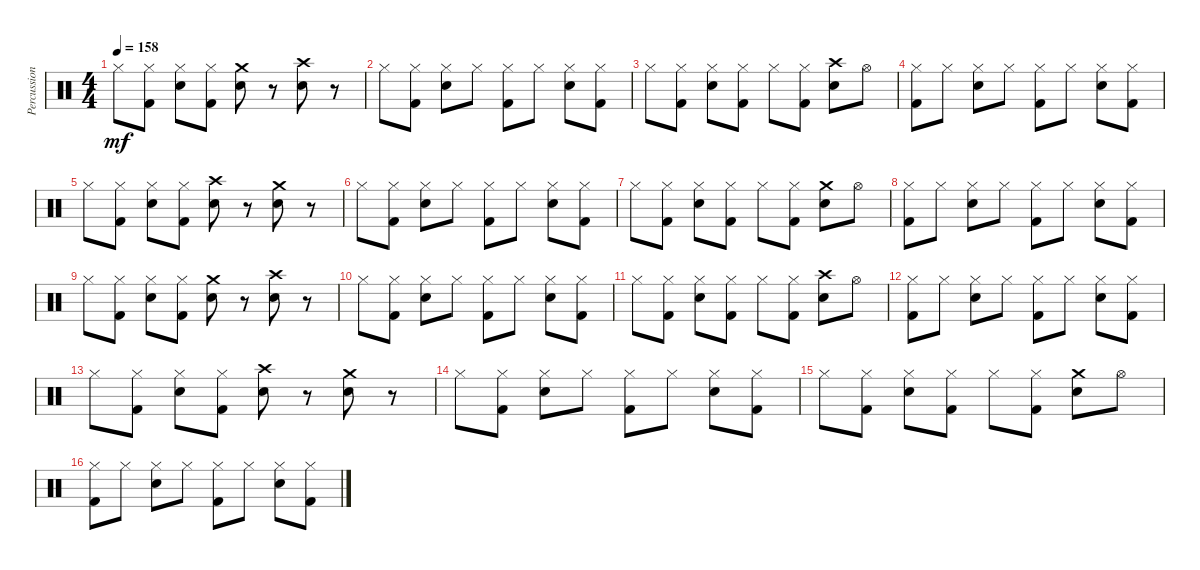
\track ("Percussions" "Percussion") {instrument percussion}
\staff {score}
\articulation defaults
\ts (4 4)
\tempo 158
\clef neutral
\ks c "Hi-Hat (closed)".8{dy mf}
("Hi-Hat (closed)" "Kick (hit) 2").8 ("Hi-Hat (closed)" "Electric Snare (hit)").8 ("Hi-Hat (closed)" "Kick (hit) 2").8 ("Crash medium (hit)" "Electric Snare (hit)").8 r.8 ("Crash high (hit)" "Electric Snare (hit)").8 r.8 |
"Hi-Hat (closed)".8 ("Hi-Hat (closed)" "Kick (hit) 2").8 ("Hi-Hat (closed)" "Electric Snare (hit)").8 "Hi-Hat (closed)".8 ("Hi-Hat (closed)" "Kick (hit) 2").8 "Hi-Hat (closed)".8 ("Hi-Hat (closed)" "Electric Snare (hit)").8 ("Hi-Hat (closed)" "Kick (hit) 2").8 |
"Hi-Hat (closed)".8 ("Hi-Hat (closed)" "Kick (hit) 2").8 ("Hi-Hat (closed)" "Electric Snare (hit)").8 ("Hi-Hat (closed)" "Kick (hit) 2").8 "Hi-Hat (closed)".8 ("Hi-Hat (closed)" "Kick (hit) 2").8 ("Crash high (hit)" "Electric Snare (hit)").8 "Hi-Hat (open)".8 |
("Hi-Hat (closed)" "Kick (hit) 2").8 "Hi-Hat (closed)".8 ("Hi-Hat (closed)" "Electric Snare (hit)").8 "Hi-Hat (closed)".8 ("Hi-Hat (closed)" "Kick (hit) 2").8 "Hi-Hat (closed)".8 ("Hi-Hat (closed)" "Electric Snare (hit)").8 ("Hi-Hat (closed)" "Kick (hit) 2").8 |
"Hi-Hat (closed)".8 ("Hi-Hat (closed)" "Kick (hit) 2").8 ("Hi-Hat (closed)" "Electric Snare (hit)").8 ("Hi-Hat (closed)" "Kick (hit) 2").8 ("Crash high (hit)" "Electric Snare (hit)").8 r.8 ("Crash medium (hit)" "Electric Snare (hit)").8 r.8 |
"Hi-Hat (closed)".8 ("Hi-Hat (closed)" "Kick (hit) 2").8 ("Hi-Hat (closed)" "Electric Snare (hit)").8 "Hi-Hat (closed)".8 ("Hi-Hat (closed)" "Kick (hit) 2").8 "Hi-Hat (closed)".8 ("Hi-Hat (closed)" "Electric Snare (hit)").8 ("Hi-Hat (closed)" "Kick (hit) 2").8 |
"Hi-Hat (closed)".8 ("Hi-Hat (closed)" "Kick (hit) 2").8 ("Hi-Hat (closed)" "Electric Snare (hit)").8 ("Hi-Hat (closed)" "Kick (hit) 2").8 "Hi-Hat (closed)".8 ("Hi-Hat (closed)" "Kick (hit) 2").8 ("Crash medium (hit)" "Electric Snare (hit)").8 "Hi-Hat (open)".8 |
("Hi-Hat (closed)" "Kick (hit) 2").8 "Hi-Hat (closed)".8 ("Hi-Hat (closed)" "Electric Snare (hit)").8 "Hi-Hat (closed)".8 ("Hi-Hat (closed)" "Kick (hit) 2").8 "Hi-Hat (closed)".8 ("Hi-Hat (closed)" "Electric Snare (hit)").8 ("Hi-Hat (closed)" "Kick (hit) 2").8 |
"Hi-Hat (closed)".8 ("Hi-Hat (closed)" "Kick (hit) 2").8 ("Hi-Hat (closed)" "Electric Snare (hit)").8 ("Hi-Hat (closed)" "Kick (hit) 2").8 ("Crash medium (hit)" "Electric Snare (hit)").8 r.8 ("Crash high (hit)" "Electric Snare (hit)").8 r.8 |
"Hi-Hat (closed)".8 ("Hi-Hat (closed)" "Kick (hit) 2").8 ("Hi-Hat (closed)" "Electric Snare (hit)").8 "Hi-Hat (closed)".8 ("Hi-Hat (closed)" "Kick (hit) 2").8 "Hi-Hat (closed)".8 ("Hi-Hat (closed)" "Electric Snare (hit)").8 ("Hi-Hat (closed)" "Kick (hit) 2").8 |
"Hi-Hat (closed)".8 ("Hi-Hat (closed)" "Kick (hit) 2").8 ("Hi-Hat (closed)" "Electric Snare (hit)").8 ("Hi-Hat (closed)" "Kick (hit) 2").8 "Hi-Hat (closed)".8 ("Hi-Hat (closed)" "Kick (hit) 2").8 ("Crash high (hit)" "Electric Snare (hit)").8 "Hi-Hat (open)".8 |
("Hi-Hat (closed)" "Kick (hit) 2").8 "Hi-Hat (closed)".8 ("Hi-Hat (closed)" "Electric Snare (hit)").8 "Hi-Hat (closed)".8 ("Hi-Hat (closed)" "Kick (hit) 2").8 "Hi-Hat (closed)".8 ("Hi-Hat (closed)" "Electric Snare (hit)").8 ("Hi-Hat (closed)" "Kick (hit) 2").8 |
"Hi-Hat (closed)".8 ("Hi-Hat (closed)" "Kick (hit) 2").8 ("Hi-Hat (closed)" "Electric Snare (hit)").8 ("Hi-Hat (closed)" "Kick (hit) 2").8 ("Crash high (hit)" "Electric Snare (hit)").8 r.8 ("Crash medium (hit)" "Electric Snare (hit)").8 r.8 |
"Hi-Hat (closed)".8 ("Hi-Hat (closed)" "Kick (hit) 2").8 ("Hi-Hat (closed)" "Electric Snare (hit)").8 "Hi-Hat (closed)".8 ("Hi-Hat (closed)" "Kick (hit) 2").8 "Hi-Hat (closed)".8 ("Hi-Hat (closed)" "Electric Snare (hit)").8 ("Hi-Hat (closed)" "Kick (hit) 2").8 |
"Hi-Hat (closed)".8 ("Hi-Hat (closed)" "Kick (hit) 2").8 ("Hi-Hat (closed)" "Electric Snare (hit)").8 ("Hi-Hat (closed)" "Kick (hit) 2").8 "Hi-Hat (closed)".8 ("Hi-Hat (closed)" "Kick (hit) 2").8 ("Crash medium (hit)" "Electric Snare (hit)").8 "Hi-Hat (open)".8 |
("Hi-Hat (closed)" "Kick (hit) 2").8 "Hi-Hat (closed)".8 ("Hi-Hat (closed)" "Electric Snare (hit)").8 "Hi-Hat (closed)".8 ("Hi-Hat (closed)" "Kick (hit) 2").8 "Hi-Hat (closed)".8 ("Hi-Hat (closed)" "Electric Snare (hit)").8 ("Hi-Hat (closed)" "Kick (hit) 2").8
